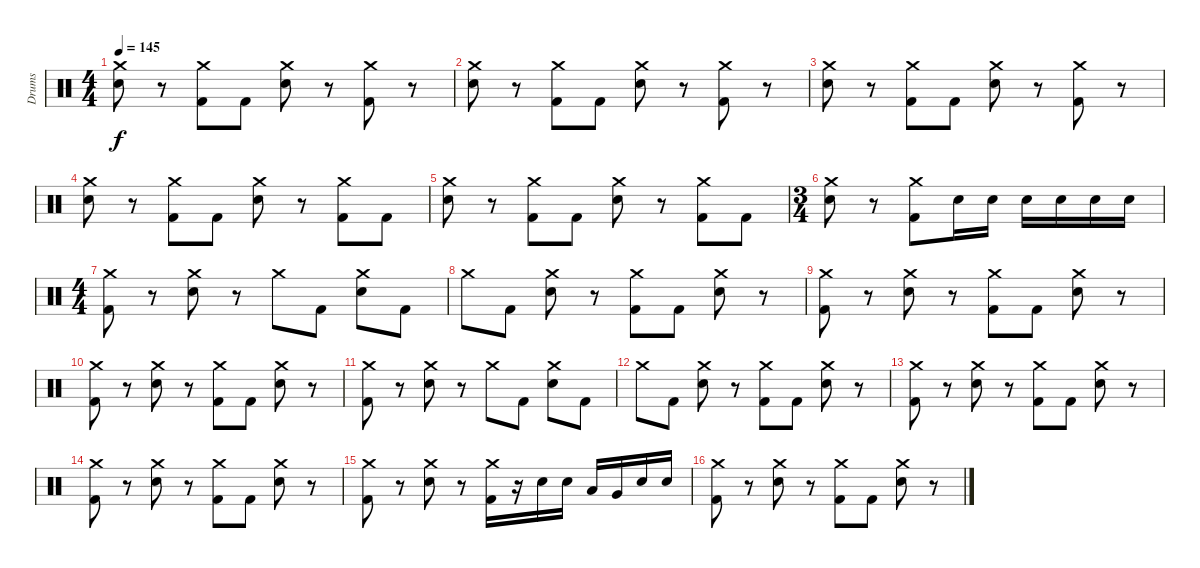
\track ("Drums" "Drums") {instrument percussion}
\staff {score}
\articulation defaults
\ts (4 4)
\tempo 145
\clef neutral
\ks c
("Crash medium (hit)" "Electric Snare (hit)").8{dy f} r.8 ("Crash medium (hit)" "Kick (hit) 2").8 "Kick (hit) 2".8 ("Crash medium (hit)" "Electric Snare (hit)").8 r.8 ("Crash medium (hit)" "Kick (hit) 2").8 r.8 |
("Crash medium (hit)" "Electric Snare (hit)").8 r.8 ("Crash medium (hit)" "Kick (hit) 2").8 "Kick (hit) 2".8 ("Crash medium (hit)" "Electric Snare (hit)").8 r.8 ("Crash medium (hit)" "Kick (hit) 2").8 r.8 |
("Crash medium (hit)" "Electric Snare (hit)").8 r.8 ("Crash medium (hit)" "Kick (hit) 2").8 "Kick (hit) 2".8 ("Crash medium (hit)" "Electric Snare (hit)").8 r.8 ("Crash medium (hit)" "Kick (hit) 2").8 r.8 |
("Crash medium (hit)" "Electric Snare (hit)").8 r.8 ("Crash medium (hit)" "Kick (hit) 2").8 "Kick (hit) 2".8 ("Crash medium (hit)" "Electric Snare (hit)").8 r.8 ("Crash medium (hit)" "Kick (hit) 2").8 "Kick (hit) 2".8 |
("Crash medium (hit)" "Electric Snare (hit)").8 r.8 ("Crash medium (hit)" "Kick (hit) 2").8 "Kick (hit) 2".8 ("Crash medium (hit)" "Electric Snare (hit)").8 r.8 ("Crash medium (hit)" "Kick (hit) 2").8 "Kick (hit) 2".8 |
\ts (3 4)
("Crash medium (hit)" "Electric Snare (hit)").8 r.8 ("Crash medium (hit)" "Kick (hit) 2").8 "Electric Snare (hit)".16 "Electric Snare (hit)".16 "Electric Snare (hit)".16 "Electric Snare (hit)".16 "Electric Snare (hit)".16 "Electric Snare (hit)".16 |
\ts (4 4)
("Crash medium (hit)" "Kick (hit) 2").8 r.8 ("Crash medium (hit)" "Electric Snare (hit)").8 r.8 "Crash medium (hit)".8 "Kick (hit) 2".8 ("Crash medium (hit)" "Electric Snare (hit)").8 "Kick (hit) 2".8 |
"Crash medium (hit)".8 "Kick (hit) 2".8 ("Crash medium (hit)" "Electric Snare (hit)").8 r.8 ("Crash medium (hit)" "Kick (hit) 2").8 "Kick (hit) 2".8 ("Crash medium (hit)" "Electric Snare (hit)").8 r.8 |
("Crash medium (hit)" "Kick (hit) 2").8 r.8 ("Crash medium (hit)" "Electric Snare (hit)").8 r.8 ("Crash medium (hit)" "Kick (hit) 2").8 "Kick (hit) 2".8 ("Crash medium (hit)" "Electric Snare (hit)").8 r.8 |
("Crash medium (hit)" "Kick (hit) 2").8 r.8 ("Crash medium (hit)" "Electric Snare (hit)").8 r.8 ("Crash medium (hit)" "Kick (hit) 2").8 "Kick (hit) 2".8 ("Crash medium (hit)" "Electric Snare (hit)").8 r.8 |
("Crash medium (hit)" "Kick (hit) 2").8 r.8 ("Crash medium (hit)" "Electric Snare (hit)").8 r.8 "Crash medium (hit)".8 "Kick (hit) 2".8 ("Crash medium (hit)" "Electric Snare (hit)").8 "Kick (hit) 2".8 |
"Crash medium (hit)".8 "Kick (hit) 2".8 ("Crash medium (hit)" "Electric Snare (hit)").8 r.8 ("Crash medium (hit)" "Kick (hit) 2").8 "Kick (hit) 2".8 ("Crash medium (hit)" "Electric Snare (hit)").8 r.8 |
("Crash medium (hit)" "Kick (hit) 2").8 r.8 ("Crash medium (hit)" "Electric Snare (hit)").8 r.8 ("Crash medium (hit)" "Kick (hit) 2").8 "Kick (hit) 2".8 ("Crash medium (hit)" "Electric Snare (hit)").8 r.8 |
("Crash medium (hit)" "Kick (hit) 2").8 r.8 ("Crash medium (hit)" "Electric Snare (hit)").8 r.8 ("Crash medium (hit)" "Kick (hit) 2").8 "Kick (hit) 2".8 ("Crash medium (hit)" "Electric Snare (hit)").8 r.8 |
("Crash medium (hit)" "Kick (hit) 2").8 r.8 ("Crash medium (hit)" "Electric Snare (hit)").8 r.8 ("Crash medium (hit)" "Kick (hit) 2").16 r.16 "Electric Snare (hit)".16 "Electric Snare (hit)".16 "Low Tom (hit)".16 "Very Low Tom (hit)".16 "Electric Snare (hit)".16 "Electric Snare (hit)".16 |
("Crash medium (hit)" "Kick (hit) 2").8 r.8 ("Crash medium (hit)" "Electric Snare (hit)").8 r.8 ("Crash medium (hit)" "Kick (hit) 2").8 "Kick (hit) 2".8 ("Crash medium (hit)" "Electric Snare (hit)").8 r.8
